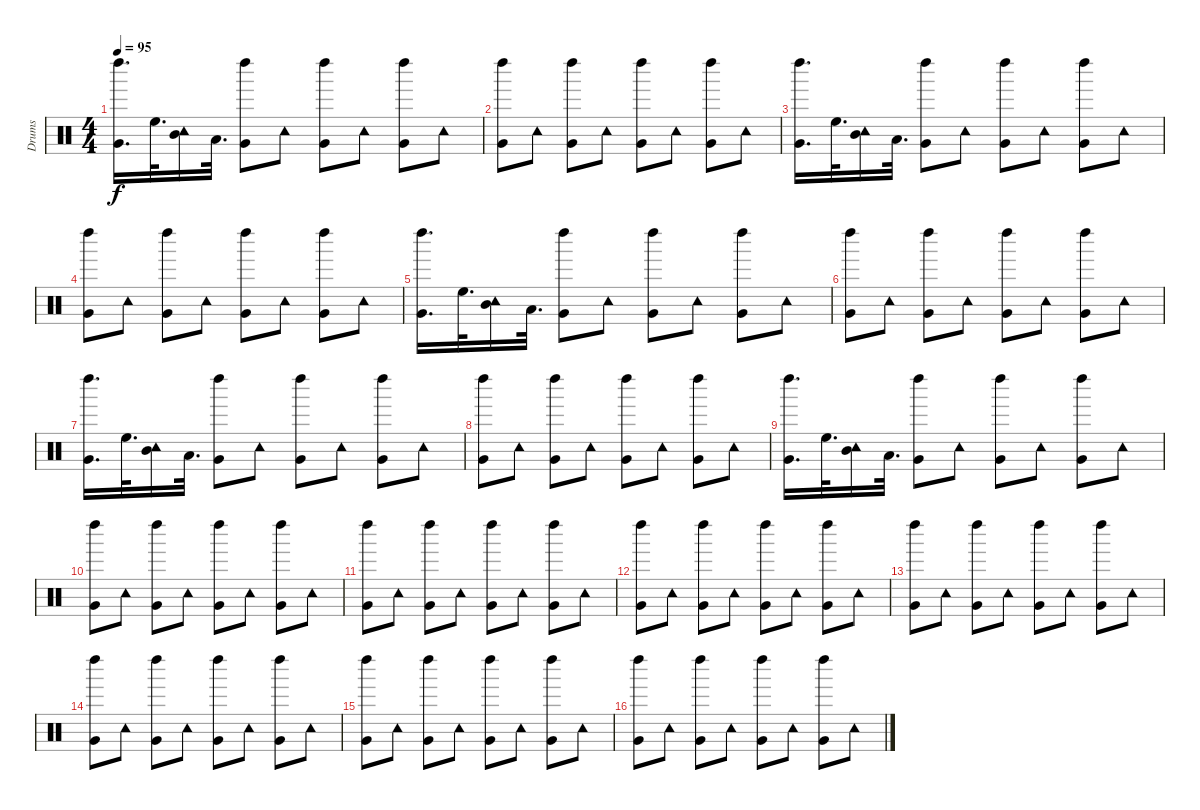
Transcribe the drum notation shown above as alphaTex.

\track ("Drums" "Drums") {instrument percussion}
\staff {score}
\articulation defaults
\ts (4 4)
\tempo 95
\clef neutral
\ks c
("Very Low Tom (hit)" "Left Maraca (hit)").16{d dy f} "High Floor Tom (hit)".32{d} ("Mid Tom (hit)" "Tambourine (hit)").16 "Low Tom (hit)".32{d} ("Very Low Tom (hit)" "Left Maraca (hit)").8 "Tambourine (hit)".8 ("Very Low Tom (hit)" "Left Maraca (hit)").8 "Tambourine (hit)".8 ("Very Low Tom (hit)" "Left Maraca (hit)").8 "Tambourine (hit)".8 |
("Very Low Tom (hit)" "Left Maraca (hit)").8 "Tambourine (hit)".8 ("Very Low Tom (hit)" "Left Maraca (hit)").8 "Tambourine (hit)".8 ("Very Low Tom (hit)" "Left Maraca (hit)").8 "Tambourine (hit)".8 ("Very Low Tom (hit)" "Left Maraca (hit)").8 "Tambourine (hit)".8 |
("Very Low Tom (hit)" "Left Maraca (hit)").16{d} "High Floor Tom (hit)".32{d} ("Mid Tom (hit)" "Tambourine (hit)").16 "Low Tom (hit)".32{d} ("Very Low Tom (hit)" "Left Maraca (hit)").8 "Tambourine (hit)".8 ("Very Low Tom (hit)" "Left Maraca (hit)").8 "Tambourine (hit)".8 ("Very Low Tom (hit)" "Left Maraca (hit)").8 "Tambourine (hit)".8 |
("Very Low Tom (hit)" "Left Maraca (hit)").8 "Tambourine (hit)".8 ("Very Low Tom (hit)" "Left Maraca (hit)").8 "Tambourine (hit)".8 ("Very Low Tom (hit)" "Left Maraca (hit)").8 "Tambourine (hit)".8 ("Very Low Tom (hit)" "Left Maraca (hit)").8 "Tambourine (hit)".8 |
("Very Low Tom (hit)" "Left Maraca (hit)").16{d} "High Floor Tom (hit)".32{d} ("Mid Tom (hit)" "Tambourine (hit)").16 "Low Tom (hit)".32{d} ("Very Low Tom (hit)" "Left Maraca (hit)").8 "Tambourine (hit)".8 ("Very Low Tom (hit)" "Left Maraca (hit)").8 "Tambourine (hit)".8 ("Very Low Tom (hit)" "Left Maraca (hit)").8 "Tambourine (hit)".8 |
("Very Low Tom (hit)" "Left Maraca (hit)").8 "Tambourine (hit)".8 ("Very Low Tom (hit)" "Left Maraca (hit)").8 "Tambourine (hit)".8 ("Very Low Tom (hit)" "Left Maraca (hit)").8 "Tambourine (hit)".8 ("Very Low Tom (hit)" "Left Maraca (hit)").8 "Tambourine (hit)".8 |
("Very Low Tom (hit)" "Left Maraca (hit)").16{d} "High Floor Tom (hit)".32{d} ("Mid Tom (hit)" "Tambourine (hit)").16 "Low Tom (hit)".32{d} ("Very Low Tom (hit)" "Left Maraca (hit)").8 "Tambourine (hit)".8 ("Very Low Tom (hit)" "Left Maraca (hit)").8 "Tambourine (hit)".8 ("Very Low Tom (hit)" "Left Maraca (hit)").8 "Tambourine (hit)".8 |
("Very Low Tom (hit)" "Left Maraca (hit)").8 "Tambourine (hit)".8 ("Very Low Tom (hit)" "Left Maraca (hit)").8 "Tambourine (hit)".8 ("Very Low Tom (hit)" "Left Maraca (hit)").8 "Tambourine (hit)".8 ("Very Low Tom (hit)" "Left Maraca (hit)").8 "Tambourine (hit)".8 |
("Very Low Tom (hit)" "Left Maraca (hit)").16{d} "High Floor Tom (hit)".32{d} ("Mid Tom (hit)" "Tambourine (hit)").16 "Low Tom (hit)".32{d} ("Very Low Tom (hit)" "Left Maraca (hit)").8 "Tambourine (hit)".8 ("Very Low Tom (hit)" "Left Maraca (hit)").8 "Tambourine (hit)".8 ("Very Low Tom (hit)" "Left Maraca (hit)").8 "Tambourine (hit)".8 |
("Very Low Tom (hit)" "Left Maraca (hit)").8 "Tambourine (hit)".8 ("Very Low Tom (hit)" "Left Maraca (hit)").8 "Tambourine (hit)".8 ("Very Low Tom (hit)" "Left Maraca (hit)").8 "Tambourine (hit)".8 ("Very Low Tom (hit)" "Left Maraca (hit)").8 "Tambourine (hit)".8 |
("Very Low Tom (hit)" "Left Maraca (hit)").8 "Tambourine (hit)".8 ("Very Low Tom (hit)" "Left Maraca (hit)").8 "Tambourine (hit)".8 ("Very Low Tom (hit)" "Left Maraca (hit)").8 "Tambourine (hit)".8 ("Very Low Tom (hit)" "Left Maraca (hit)").8 "Tambourine (hit)".8 |
("Very Low Tom (hit)" "Left Maraca (hit)").8 "Tambourine (hit)".8 ("Very Low Tom (hit)" "Left Maraca (hit)").8 "Tambourine (hit)".8 ("Very Low Tom (hit)" "Left Maraca (hit)").8 "Tambourine (hit)".8 ("Very Low Tom (hit)" "Left Maraca (hit)").8 "Tambourine (hit)".8 |
("Very Low Tom (hit)" "Left Maraca (hit)").8 "Tambourine (hit)".8 ("Very Low Tom (hit)" "Left Maraca (hit)").8 "Tambourine (hit)".8 ("Very Low Tom (hit)" "Left Maraca (hit)").8 "Tambourine (hit)".8 ("Very Low Tom (hit)" "Left Maraca (hit)").8 "Tambourine (hit)".8 |
("Very Low Tom (hit)" "Left Maraca (hit)").8 "Tambourine (hit)".8 ("Very Low Tom (hit)" "Left Maraca (hit)").8 "Tambourine (hit)".8 ("Very Low Tom (hit)" "Left Maraca (hit)").8 "Tambourine (hit)".8 ("Very Low Tom (hit)" "Left Maraca (hit)").8 "Tambourine (hit)".8 |
("Very Low Tom (hit)" "Left Maraca (hit)").8 "Tambourine (hit)".8 ("Very Low Tom (hit)" "Left Maraca (hit)").8 "Tambourine (hit)".8 ("Very Low Tom (hit)" "Left Maraca (hit)").8 "Tambourine (hit)".8 ("Very Low Tom (hit)" "Left Maraca (hit)").8 "Tambourine (hit)".8 |
("Very Low Tom (hit)" "Left Maraca (hit)").8 "Tambourine (hit)".8 ("Very Low Tom (hit)" "Left Maraca (hit)").8 "Tambourine (hit)".8 ("Very Low Tom (hit)" "Left Maraca (hit)").8 "Tambourine (hit)".8 ("Very Low Tom (hit)" "Left Maraca (hit)").8 "Tambourine (hit)".8
